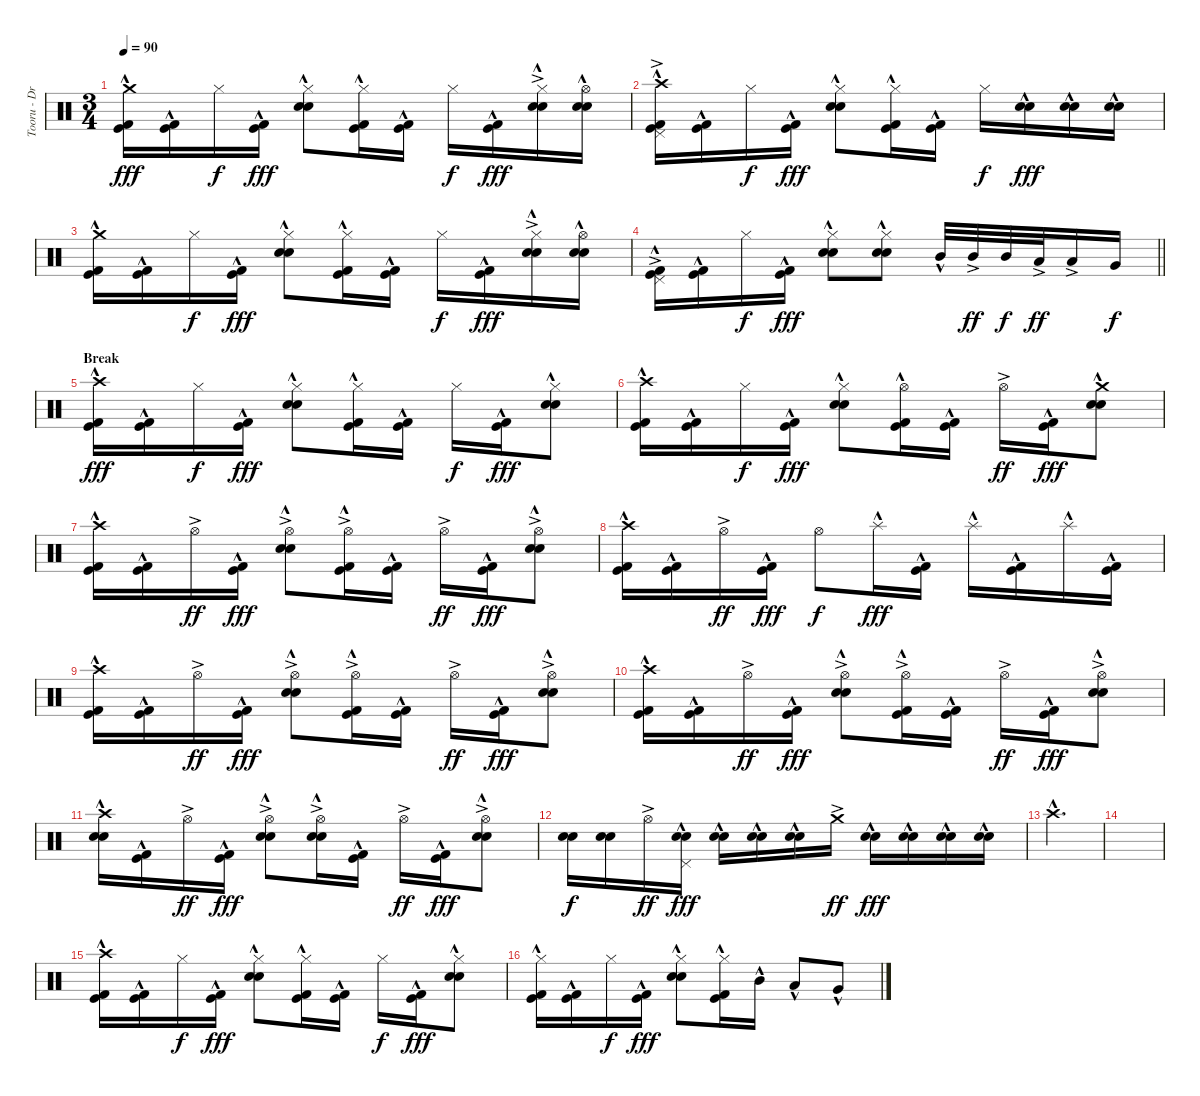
\track ("Tooru - Drums" "Tooru - Dr") {instrument percussion}
\staff {score}
\articulation defaults
\ts (3 4)
\tempo 90
\clef neutral
\ks c
("Crash medium (hit)"{hac} "Kick (hit)"{hac} "Kick (hit) 2"{hac}).16{dy fff} ("Kick (hit)"{hac} "Kick (hit) 2"{hac}).16 "Hi-Hat (closed)".16{dy f} ("Kick (hit)"{hac} "Kick (hit) 2"{hac}).16{dy fff} ("Hi-Hat (closed)" "Electric Snare (hit)"{hac} "Snare (hit) 2"{hac}).8 ("Hi-Hat (closed)" "Kick (hit)"{hac} "Kick (hit) 2"{hac}).16 ("Kick (hit)"{hac} "Kick (hit) 2"{hac}).16 "Hi-Hat (closed)".16{dy f} ("Kick (hit)"{hac} "Kick (hit) 2"{hac}).16{dy fff} ("Hi-Hat (closed)"{ac} "Electric Snare (hit)"{hac} "Snare (hit) 2"{hac}).16 ("Hi-Hat (open)"{hac} "Electric Snare (hit)"{hac} "Snare (hit) 2"{hac}).16 |
("Crash high (hit)"{hac} "Pedal Hi-Hat (hit)"{ac} "Kick (hit)"{hac} "Kick (hit) 2"{hac}).16 ("Kick (hit)"{hac} "Kick (hit) 2"{hac}).16 "Hi-Hat (closed)".16{dy f} ("Kick (hit)"{hac} "Kick (hit) 2"{hac}).16{dy fff} ("Hi-Hat (closed)" "Electric Snare (hit)"{hac} "Snare (hit) 2"{hac}).8 ("Hi-Hat (closed)" "Kick (hit)"{hac} "Kick (hit) 2"{hac}).16 ("Kick (hit)"{hac} "Kick (hit) 2"{hac}).16 "Hi-Hat (closed)".16{dy f} ("Electric Snare (hit)"{hac} "Snare (hit) 2"{hac}).16{dy fff} ("Electric Snare (hit)"{hac} "Snare (hit) 2"{hac}).16 ("Electric Snare (hit)"{hac} "Snare (hit) 2"{hac}).16 |
("Crash medium (hit)"{hac} "Kick (hit)"{hac} "Kick (hit) 2"{hac}).16 ("Kick (hit)"{hac} "Kick (hit) 2"{hac}).16 "Hi-Hat (closed)".16{dy f} ("Kick (hit)"{hac} "Kick (hit) 2"{hac}).16{dy fff} ("Hi-Hat (closed)" "Electric Snare (hit)"{hac} "Snare (hit) 2"{hac}).8 ("Hi-Hat (closed)" "Kick (hit)"{hac} "Kick (hit) 2"{hac}).16 ("Kick (hit)"{hac} "Kick (hit) 2"{hac}).16 "Hi-Hat (closed)".16{dy f} ("Kick (hit)"{hac} "Kick (hit) 2"{hac}).16{dy fff} ("Hi-Hat (closed)"{ac} "Electric Snare (hit)"{hac} "Snare (hit) 2"{hac}).16 ("Hi-Hat (open)"{hac} "Electric Snare (hit)"{hac} "Snare (hit) 2"{hac}).16 |
\barLineRight lightlight
("Pedal Hi-Hat (hit)"{ac} "Kick (hit)"{hac} "Kick (hit) 2"{hac}).16 ("Kick (hit)"{hac} "Kick (hit) 2"{hac}).16 "Hi-Hat (closed)".16{dy f} ("Kick (hit)"{hac} "Kick (hit) 2"{hac}).16{dy fff} ("Hi-Hat (closed)" "Electric Snare (hit)"{hac} "Snare (hit) 2"{hac}).8 ("Hi-Hat (closed)" "Electric Snare (hit)"{hac} "Snare (hit) 2"{hac}).8 "Mid Tom (hit)"{hac}.32 "Mid Tom (hit)"{ac}.32{dy ff} "Mid Tom (hit)".32{dy f} "Low Tom (hit)"{ac}.32{dy ff} "Low Tom (hit)"{ac}.16 "Very Low Tom (hit)".16{dy f} |
\section ("" "Break")
("Crash high (hit)"{hac} "Kick (hit)"{hac} "Kick (hit) 2"{hac}).16{dy fff} ("Kick (hit)"{hac} "Kick (hit) 2"{hac}).16 "Hi-Hat (closed)".16{dy f} ("Kick (hit)"{hac} "Kick (hit) 2"{hac}).16{dy fff} ("Hi-Hat (closed)" "Electric Snare (hit)"{hac} "Snare (hit) 2"{hac}).8 ("Hi-Hat (closed)" "Kick (hit)"{hac} "Kick (hit) 2"{hac}).16 ("Kick (hit)"{hac} "Kick (hit) 2"{hac}).16 "Hi-Hat (closed)".16{dy f} ("Kick (hit)"{hac} "Kick (hit) 2"{hac}).16{dy fff} ("Hi-Hat (closed)" "Electric Snare (hit)"{hac} "Snare (hit) 2"{hac}).8 |
("Crash high (hit)"{hac} "Kick (hit)"{hac} "Kick (hit) 2"{hac}).16 ("Kick (hit)"{hac} "Kick (hit) 2"{hac}).16 "Hi-Hat (closed)".16{dy f} ("Kick (hit)"{hac} "Kick (hit) 2"{hac}).16{dy fff} ("Hi-Hat (closed)" "Electric Snare (hit)"{hac} "Snare (hit) 2"{hac}).8 ("Hi-Hat (open)" "Kick (hit)"{hac} "Kick (hit) 2"{hac}).16 ("Kick (hit)"{hac} "Kick (hit) 2"{hac}).16 "Hi-Hat (open)"{ac}.16{dy ff} ("Kick (hit)"{hac} "Kick (hit) 2"{hac}).16{dy fff} ("Crash medium (hit)"{hac} "Electric Snare (hit)"{hac} "Snare (hit) 2"{hac}).8 |
("Crash high (hit)"{hac} "Kick (hit)"{hac} "Kick (hit) 2"{hac}).16 ("Kick (hit)"{hac} "Kick (hit) 2"{hac}).16 "Hi-Hat (open)"{ac}.16{dy ff} ("Kick (hit)"{hac} "Kick (hit) 2"{hac}).16{dy fff} ("Hi-Hat (open)"{ac} "Electric Snare (hit)"{hac} "Snare (hit) 2"{hac}).8 ("Hi-Hat (open)"{ac} "Kick (hit)"{hac} "Kick (hit) 2"{hac}).16 ("Kick (hit)"{hac} "Kick (hit) 2"{hac}).16 "Hi-Hat (open)"{ac}.16{dy ff} ("Kick (hit)"{hac} "Kick (hit) 2"{hac}).16{dy fff} ("Hi-Hat (open)"{ac} "Electric Snare (hit)"{hac} "Snare (hit) 2"{hac}).8 |
("Crash high (hit)"{hac} "Kick (hit)"{hac} "Kick (hit) 2"{hac}).16 ("Kick (hit)"{hac} "Kick (hit) 2"{hac}).16 "Hi-Hat (open)"{ac}.16{dy ff} ("Kick (hit)"{hac} "Kick (hit) 2"{hac}).16{dy fff} "Hi-Hat (open)".8{dy f} "Splash (hit)"{hac}.16{dy fff} ("Kick (hit)"{hac} "Kick (hit) 2"{hac}).16 "Splash (hit)"{hac}.16 ("Kick (hit)"{hac} "Kick (hit) 2"{hac}).16 "Splash (hit)"{hac}.16 ("Kick (hit)"{hac} "Kick (hit) 2"{hac}).16 |
("Crash high (hit)"{hac} "Kick (hit)"{hac} "Kick (hit) 2"{hac}).16 ("Kick (hit)"{hac} "Kick (hit) 2"{hac}).16 "Hi-Hat (open)"{ac}.16{dy ff} ("Kick (hit)"{hac} "Kick (hit) 2"{hac}).16{dy fff} ("Hi-Hat (open)"{ac} "Electric Snare (hit)"{hac} "Snare (hit) 2"{hac}).8 ("Hi-Hat (open)"{ac} "Kick (hit)"{hac} "Kick (hit) 2"{hac}).16 ("Kick (hit)"{hac} "Kick (hit) 2"{hac}).16 "Hi-Hat (open)"{ac}.16{dy ff} ("Kick (hit)"{hac} "Kick (hit) 2"{hac}).16{dy fff} ("Hi-Hat (open)"{ac} "Electric Snare (hit)"{hac} "Snare (hit) 2"{hac}).8 |
("Crash high (hit)"{hac} "Kick (hit)"{hac} "Kick (hit) 2"{hac}).16 ("Kick (hit)"{hac} "Kick (hit) 2"{hac}).16 "Hi-Hat (open)"{ac}.16{dy ff} ("Kick (hit)"{hac} "Kick (hit) 2"{hac}).16{dy fff} ("Hi-Hat (open)"{ac} "Electric Snare (hit)"{hac} "Snare (hit) 2"{hac}).8 ("Hi-Hat (open)"{ac} "Kick (hit)"{hac} "Kick (hit) 2"{hac}).16 ("Kick (hit)"{hac} "Kick (hit) 2"{hac}).16 "Hi-Hat (open)"{ac}.16{dy ff} ("Kick (hit)"{hac} "Kick (hit) 2"{hac}).16{dy fff} ("Hi-Hat (open)"{ac} "Electric Snare (hit)"{hac} "Snare (hit) 2"{hac}).8 |
("Crash high (hit)"{hac} "Electric Snare (hit)"{hac} "Snare (hit) 2"{hac}).16 ("Kick (hit)"{hac} "Kick (hit) 2"{hac}).16 "Hi-Hat (open)"{ac}.16{dy ff} ("Kick (hit)"{hac} "Kick (hit) 2"{hac}).16{dy fff} ("Hi-Hat (open)"{ac} "Electric Snare (hit)"{hac} "Snare (hit) 2"{hac}).8 ("Hi-Hat (open)"{ac} "Electric Snare (hit)"{hac} "Snare (hit) 2"{hac}).16 ("Kick (hit)"{hac} "Kick (hit) 2"{hac}).16 "Hi-Hat (open)"{ac}.16{dy ff} ("Kick (hit)"{hac} "Kick (hit) 2"{hac}).16{dy fff} ("Hi-Hat (open)"{ac} "Electric Snare (hit)"{hac} "Snare (hit) 2"{hac}).8 |
("Electric Snare (hit)" "Snare (hit) 2").16{dy f} ("Electric Snare (hit)" "Snare (hit) 2").16 "Hi-Hat (open)"{ac}.16{dy ff} ("Pedal Hi-Hat (hit)" "Electric Snare (hit)"{hac} "Snare (hit) 2"{hac}).16{dy fff} ("Electric Snare (hit)"{hac} "Snare (hit) 2"{hac}).16 ("Electric Snare (hit)"{hac} "Snare (hit) 2"{hac}).16 ("Electric Snare (hit)"{hac} "Snare (hit) 2"{hac}).16 "Crash medium (hit)"{ac}.16{dy ff} ("Electric Snare (hit)"{hac} "Snare (hit) 2"{hac}).16{dy fff} ("Electric Snare (hit)"{hac} "Snare (hit) 2"{hac}).16 ("Electric Snare (hit)"{hac} "Snare (hit) 2"{hac}).16 ("Electric Snare (hit)"{hac} "Snare (hit) 2"{hac}).16 |
"Crash high (hit)"{hac}.2{d} |
|
("Crash high (hit)"{hac} "Kick (hit)"{hac} "Kick (hit) 2"{hac}).16 ("Kick (hit)"{hac} "Kick (hit) 2"{hac}).16 "Hi-Hat (closed)".16{dy f} ("Kick (hit)"{hac} "Kick (hit) 2"{hac}).16{dy fff} ("Hi-Hat (closed)" "Electric Snare (hit)"{hac} "Snare (hit) 2"{hac}).8 ("Hi-Hat (closed)" "Kick (hit)"{hac} "Kick (hit) 2"{hac}).16 ("Kick (hit)"{hac} "Kick (hit) 2"{hac}).16 "Hi-Hat (closed)".16{dy f} ("Kick (hit)"{hac} "Kick (hit) 2"{hac}).16{dy fff} ("Hi-Hat (closed)" "Electric Snare (hit)"{hac} "Snare (hit) 2"{hac}).8 |
("Hi-Hat (closed)"{hac} "Kick (hit)"{hac} "Kick (hit) 2"{hac}).16 ("Kick (hit)"{hac} "Kick (hit) 2"{hac}).16 "Hi-Hat (closed)".16{dy f} ("Kick (hit)"{hac} "Kick (hit) 2"{hac}).16{dy fff} ("Hi-Hat (closed)" "Electric Snare (hit)"{hac} "Snare (hit) 2"{hac}).8 ("Hi-Hat (closed)" "Kick (hit)"{hac} "Kick (hit) 2"{hac}).16 "Mid Tom (hit)"{hac}.16 "Low Tom (hit)"{hac}.8 "Very Low Tom (hit)"{hac}.8
